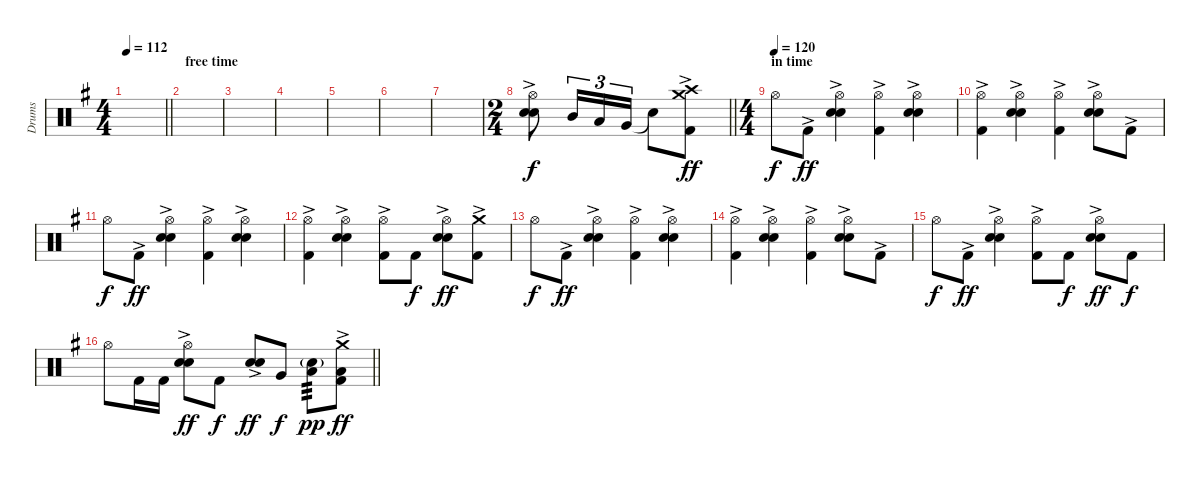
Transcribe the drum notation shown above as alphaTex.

\track ("Drums" "Drums") {instrument percussion}
\staff {score}
\articulation defaults
\ts (4 4)
\tempo 112
\clef neutral
\barLineRight lightlight
\ks g
|
\section ("" "free time")
|
|
|
|
|
|
\ts (2 4)
\barLineRight lightlight
("Hi-Hat (open)" "Electric Snare (hit)"{ac} "Snare (hit) 2").8 "Mid Tom (hit)".16{tu (3 2) dy f} "Low Tom (hit)".16{tu (3 2)} "Very Low Tom (hit)".16{tu (3 2)} "Snare (hit)"{t}.8 ("Crash high (hit)" "Crash medium (hit)" "Kick (hit) 2"{ac}).8{dy ff} |
\ts (4 4)
\section ("" "in time")
\tempo (120)
"Hi-Hat (open)".8{dy f} "Kick (hit) 2"{ac}.8{dy ff} ("Hi-Hat (open)" "Electric Snare (hit)"{ac} "Snare (hit) 2").4 ("Hi-Hat (open)" "Kick (hit) 2"{ac}).4 ("Hi-Hat (open)" "Electric Snare (hit)"{ac} "Snare (hit) 2").4 |
("Hi-Hat (open)" "Kick (hit) 2"{ac}).4 ("Hi-Hat (open)" "Electric Snare (hit)"{ac} "Snare (hit) 2").4 ("Hi-Hat (open)" "Kick (hit) 2"{ac}).4 ("Hi-Hat (open)" "Electric Snare (hit)"{ac} "Snare (hit) 2").8 "Kick (hit) 2"{ac}.8 |
"Hi-Hat (open)".8{dy f} "Kick (hit) 2"{ac}.8{dy ff} ("Hi-Hat (open)" "Electric Snare (hit)"{ac} "Snare (hit) 2").4 ("Hi-Hat (open)" "Kick (hit) 2"{ac}).4 ("Hi-Hat (open)" "Electric Snare (hit)"{ac} "Snare (hit) 2").4 |
("Hi-Hat (open)" "Kick (hit) 2"{ac}).4 ("Hi-Hat (open)" "Electric Snare (hit)"{ac} "Snare (hit) 2").4 ("Hi-Hat (open)" "Kick (hit) 2"{ac}).8 "Kick (hit) 2".8{dy f} ("Hi-Hat (open)" "Electric Snare (hit)"{ac} "Snare (hit) 2").8{dy ff} ("Crash medium (hit)" "Kick (hit) 2"{ac}).8 |
"Hi-Hat (open)".8{dy f} "Kick (hit) 2"{ac}.8{dy ff} ("Hi-Hat (open)" "Electric Snare (hit)"{ac} "Snare (hit) 2").4 ("Hi-Hat (open)" "Kick (hit) 2"{ac}).4 ("Hi-Hat (open)" "Electric Snare (hit)"{ac} "Snare (hit) 2").4 |
("Hi-Hat (open)" "Kick (hit) 2"{ac}).4 ("Hi-Hat (open)" "Electric Snare (hit)"{ac} "Snare (hit) 2").4 ("Hi-Hat (open)" "Kick (hit) 2"{ac}).4 ("Hi-Hat (open)" "Electric Snare (hit)"{ac} "Snare (hit) 2").8 "Kick (hit) 2"{ac}.8 |
"Hi-Hat (open)".8{dy f} "Kick (hit) 2"{ac}.8{dy ff} ("Hi-Hat (open)" "Electric Snare (hit)"{ac} "Snare (hit) 2").4 ("Hi-Hat (open)" "Kick (hit) 2"{ac}).8 "Kick (hit) 2".8{dy f} ("Hi-Hat (open)" "Electric Snare (hit)"{ac} "Snare (hit) 2").8{dy ff} "Kick (hit) 2".8{dy f} |
\barLineRight lightlight "Hi-Hat (open)".8 "Kick (hit) 2".16 "Kick (hit) 2".16
("Hi-Hat (open)" "Electric Snare (hit)"{ac} "Snare (hit) 2").8{dy ff} "Kick (hit) 2".8{dy f} ("Electric Snare (hit)"{ac} "Snare (hit) 2").8{dy ff} "Very Low Tom (hit)".8{dy f} ("Low Tom (hit)" "Snare (hit) 2"{g}).8{tp 3 dy pp} ("Low Floor Tom (hit)" "Crash medium (hit)" "Kick (hit) 2"{ac}).8{dy ff}
